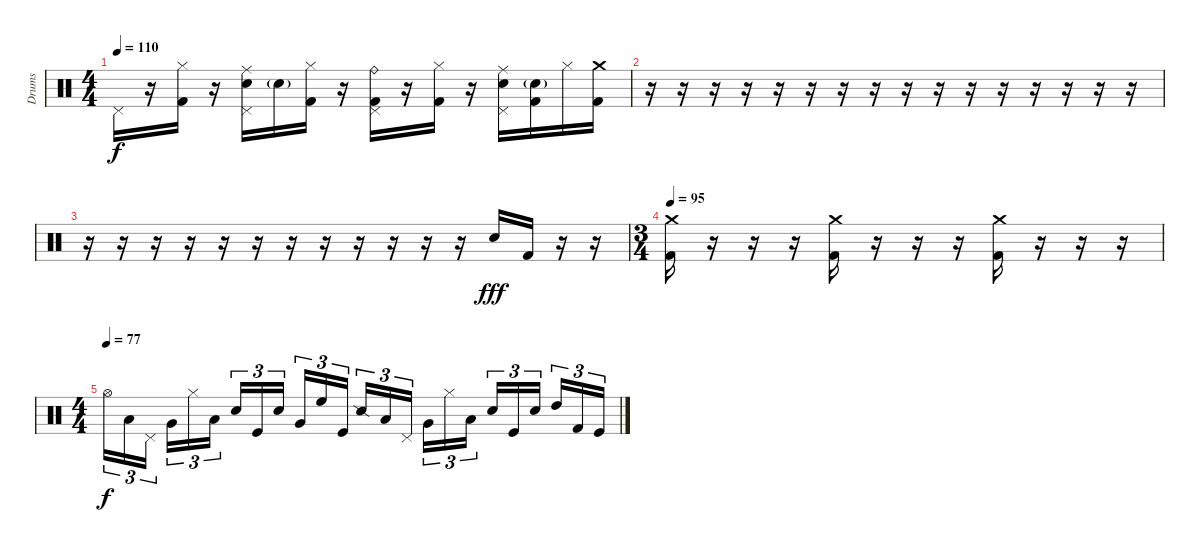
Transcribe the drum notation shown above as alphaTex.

\track ("Drums" "Drums") {instrument percussion}
\staff {score}
\articulation defaults
\ts (4 4)
\tempo 110
\clef neutral
\ks c "Pedal Hi-Hat (hit)".16{dy f}
r.16 ("Hi-Hat (closed)" "Kick (hit) 2").16 r.16 ("Ride (middle)" "Pedal Hi-Hat (hit)" "Snare (hit) 2").16 "Snare (hit) 2"{g}.16 ("Hi-Hat (closed)" "Kick (hit) 2").16 r.16 ("Ride (bell)" "Pedal Hi-Hat (hit)" "Kick (hit) 2").16 r.16 ("Hi-Hat (closed)" "Kick (hit) 2").16 r.16 ("Ride (middle)" "Pedal Hi-Hat (hit)" "Snare (hit) 2").16 ("Snare (hit) 2"{g} "Kick (hit) 2").16 "Hi-Hat (closed)".16 ("Crash medium (hit)" "Kick (hit) 2").16 |
r.16 r.16 r.16 r.16 r.16 r.16 r.16 r.16 r.16 r.16 r.16 r.16 r.16 r.16 r.16 r.16 |
r.16 r.16 r.16 r.16 r.16 r.16 r.16 r.16 r.16 r.16 r.16 r.16 "Snare (hit) 2".16{dy fff} "Kick (hit) 2".16 r.16 r.16 |
\ts (3 4)
\tempo 95
("Crash medium (hit)" "Kick (hit) 2").16 r.16 r.16 r.16 ("Crash medium (hit)" "Kick (hit) 2").16 r.16 r.16 r.16 ("Crash medium (hit)" "Kick (hit) 2").16 r.16 r.16 r.16 |
\ts (4 4)
\tempo (77)
"Hi-Hat (open)".16{tu (3 2) dy f} "Low Tom (hit)".16{tu (3 2)} "Pedal Hi-Hat (hit)".16{tu (3 2) beam splitsecondary} "Very Low Tom (hit)".16{tu (3 2)} "Hi-Hat (closed)".16{tu (3 2)} "Low Floor Tom (hit)".16{tu (3 2)} "Electric Snare (hit)".16{tu (3 2)} "Kick (hit)".16{tu (3 2)} "Snare (hit) 2".16{tu (3 2) beam splitsecondary} "Very Low Tom (hit)".16{tu (3 2)} "High Floor Tom (hit)".16{tu (3 2)} "Kick (hit)".16{tu (3 2)} "Snare (side stick) 2".16{tu (3 2)} "Low Tom (hit)".16{tu (3 2)} "Pedal Hi-Hat (hit)".16{tu (3 2) beam splitsecondary} "Very Low Tom (hit)".16{tu (3 2)} "Hi-Hat (closed)".16{tu (3 2)} "Low Floor Tom (hit)".16{tu (3 2)} "Electric Snare (hit)".16{tu (3 2)} "Kick (hit)".16{tu (3 2)} "Snare (hit) 2".16{tu (3 2) beam splitsecondary} "High Tom (hit)".16{tu (3 2)} "Kick (hit) 2".16{tu (3 2)} "Kick (hit)".16{tu (3 2)}
